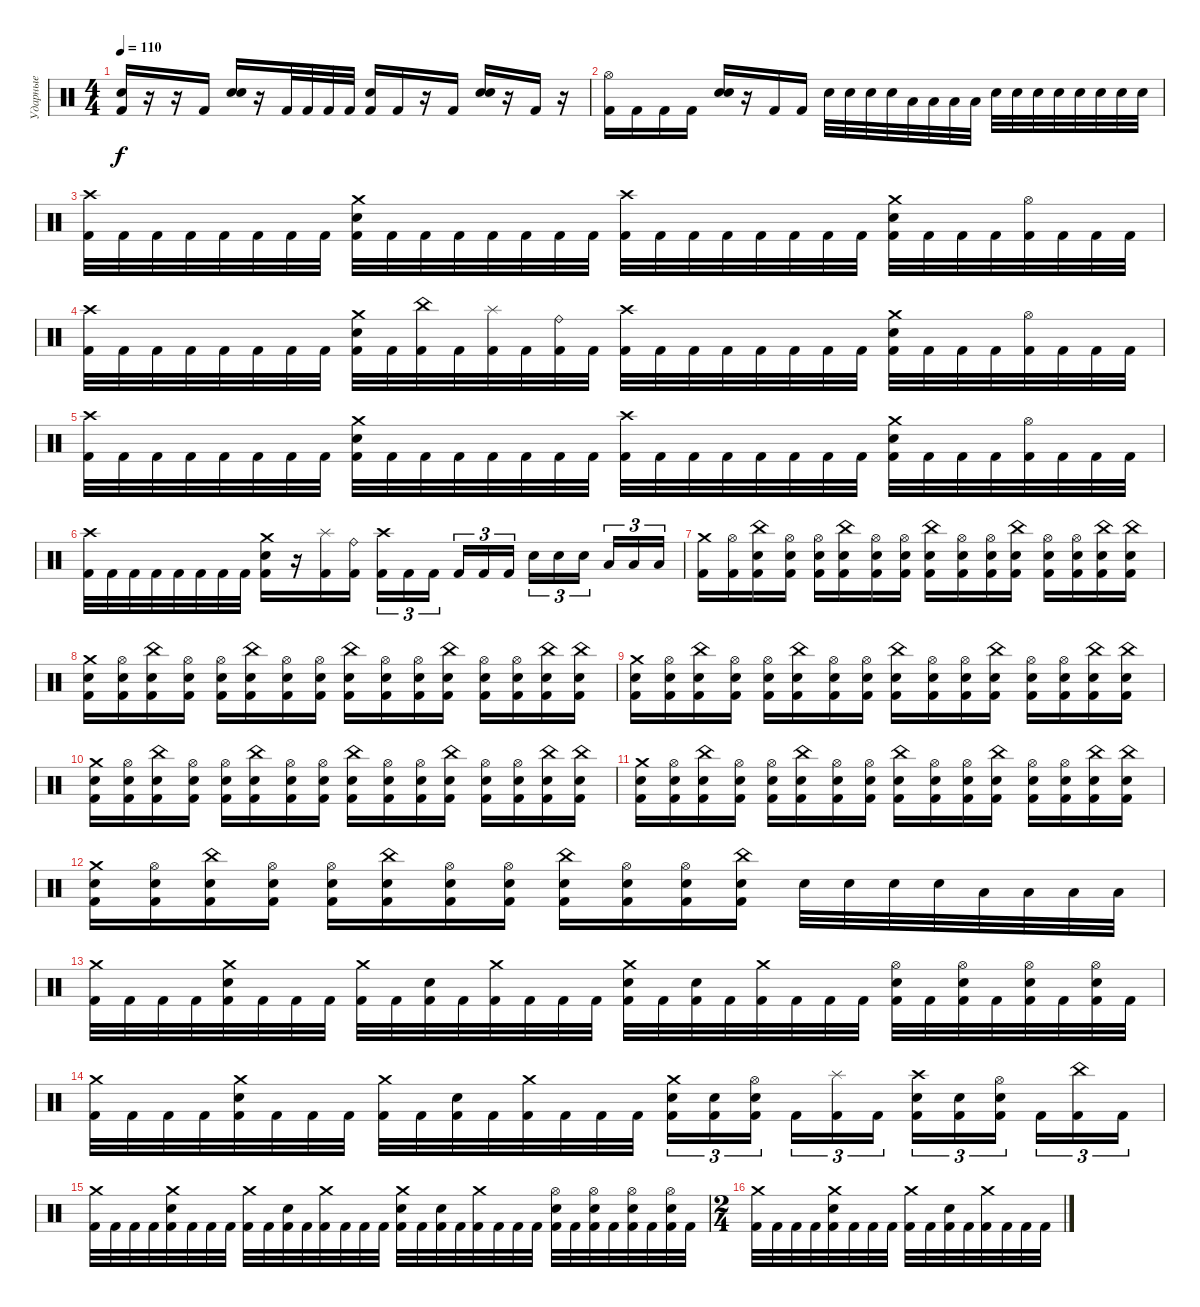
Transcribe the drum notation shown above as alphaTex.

\track ("Ударные" "Ударные") {instrument percussion}
\staff {score}
\articulation defaults
\ts (4 4)
\tempo 110
\clef neutral
\ks c
("Metronome (bell)" "Kick (hit) 2").16{dy f} r.16 r.16 "Kick (hit) 2".16 ("Metronome (bell)" "Electric Snare (hit)").16 r.16 "Kick (hit) 2".32 "Kick (hit) 2".32 "Kick (hit) 2".32 "Kick (hit) 2".32 ("Metronome (bell)" "Kick (hit) 2").16 "Kick (hit) 2".16 r.16 "Kick (hit) 2".16 ("Metronome (bell)" "Electric Snare (hit)").16 r.16 "Kick (hit) 2".16 r.16 |
("Hi-Hat (open)" "Kick (hit) 2").16 "Kick (hit) 2".16 "Kick (hit) 2".16 "Kick (hit) 2".16 ("Metronome (bell)" "Electric Snare (hit)").16 r.16 "Kick (hit) 2".16 "Kick (hit) 2".16 "Electric Snare (hit)".32 "Electric Snare (hit)".32 "Electric Snare (hit)".32 "Electric Snare (hit)".32 "Low Tom (hit)".32 "Low Tom (hit)".32 "Low Tom (hit)".32 "Low Tom (hit)".32 "Electric Snare (hit)".32 "Electric Snare (hit)".32 "Electric Snare (hit)".32 "Electric Snare (hit)".32 "Electric Snare (hit)".32 "Electric Snare (hit)".32 "Electric Snare (hit)".32 "Electric Snare (hit)".32 |
("Crash high (hit)" "Kick (hit) 2").32 "Kick (hit) 2".32 "Kick (hit) 2".32 "Kick (hit) 2".32 "Kick (hit) 2".32 "Kick (hit) 2".32 "Kick (hit) 2".32 "Kick (hit) 2".32 ("Crash medium (hit)" "Electric Snare (hit)" "Kick (hit) 2").32 "Kick (hit) 2".32 "Kick (hit) 2".32 "Kick (hit) 2".32 "Kick (hit) 2".32 "Kick (hit) 2".32 "Kick (hit) 2".32 "Kick (hit) 2".32 ("Crash high (hit)" "Kick (hit) 2").32 "Kick (hit) 2".32 "Kick (hit) 2".32 "Kick (hit) 2".32 "Kick (hit) 2".32 "Kick (hit) 2".32 "Kick (hit) 2".32 "Kick (hit) 2".32 ("Crash medium (hit)" "Electric Snare (hit)" "Kick (hit) 2").32 "Kick (hit) 2".32 "Kick (hit) 2".32 "Kick (hit) 2".32 ("Hi-Hat (open)" "Kick (hit) 2").32 "Kick (hit) 2".32 "Kick (hit) 2".32 "Kick (hit) 2".32 |
("Crash high (hit)" "Kick (hit) 2").32 "Kick (hit) 2".32 "Kick (hit) 2".32 "Kick (hit) 2".32 "Kick (hit) 2".32 "Kick (hit) 2".32 "Kick (hit) 2".32 "Kick (hit) 2".32 ("Crash medium (hit)" "Electric Snare (hit)" "Kick (hit) 2").32 "Kick (hit) 2".32 ("China (hit)" "Kick (hit) 2").32 "Kick (hit) 2".32 ("Splash (hit)" "Kick (hit) 2").32 "Kick (hit) 2".32 ("Ride (bell)" "Kick (hit) 2").32 "Kick (hit) 2".32 ("Crash high (hit)" "Kick (hit) 2").32 "Kick (hit) 2".32 "Kick (hit) 2".32 "Kick (hit) 2".32 "Kick (hit) 2".32 "Kick (hit) 2".32 "Kick (hit) 2".32 "Kick (hit) 2".32 ("Crash medium (hit)" "Electric Snare (hit)" "Kick (hit) 2").32 "Kick (hit) 2".32 "Kick (hit) 2".32 "Kick (hit) 2".32 ("Hi-Hat (open)" "Kick (hit) 2").32 "Kick (hit) 2".32 "Kick (hit) 2".32 "Kick (hit) 2".32 |
("Crash high (hit)" "Kick (hit) 2").32 "Kick (hit) 2".32 "Kick (hit) 2".32 "Kick (hit) 2".32 "Kick (hit) 2".32 "Kick (hit) 2".32 "Kick (hit) 2".32 "Kick (hit) 2".32 ("Crash medium (hit)" "Electric Snare (hit)" "Kick (hit) 2").32 "Kick (hit) 2".32 "Kick (hit) 2".32 "Kick (hit) 2".32 "Kick (hit) 2".32 "Kick (hit) 2".32 "Kick (hit) 2".32 "Kick (hit) 2".32 ("Crash high (hit)" "Kick (hit) 2").32 "Kick (hit) 2".32 "Kick (hit) 2".32 "Kick (hit) 2".32 "Kick (hit) 2".32 "Kick (hit) 2".32 "Kick (hit) 2".32 "Kick (hit) 2".32 ("Crash medium (hit)" "Electric Snare (hit)" "Kick (hit) 2").32 "Kick (hit) 2".32 "Kick (hit) 2".32 "Kick (hit) 2".32 ("Hi-Hat (open)" "Kick (hit) 2").32 "Kick (hit) 2".32 "Kick (hit) 2".32 "Kick (hit) 2".32 |
("Crash high (hit)" "Kick (hit) 2").32 "Kick (hit) 2".32 "Kick (hit) 2".32 "Kick (hit) 2".32 "Kick (hit) 2".32 "Kick (hit) 2".32 "Kick (hit) 2".32 "Kick (hit) 2".32 ("Crash medium (hit)" "Electric Snare (hit)" "Kick (hit) 2").16 r.16 ("Splash (hit)" "Kick (hit) 2").16 ("Ride (bell)" "Kick (hit) 2").16 ("Crash high (hit)" "Kick (hit) 2").16{tu (3 2)} "Kick (hit) 2".16{tu (3 2)} "Kick (hit) 2".16{tu (3 2) beam splitsecondary} "Kick (hit) 2".16{tu (3 2)} "Kick (hit) 2".16{tu (3 2)} "Kick (hit) 2".16{tu (3 2)} "Electric Snare (hit)".16{tu (3 2)} "Electric Snare (hit)".16{tu (3 2)} "Electric Snare (hit)".16{tu (3 2) beam splitsecondary} "Low Tom (hit)".16{tu (3 2)} "Low Tom (hit)".16{tu (3 2)} "Low Tom (hit)".16{tu (3 2)} |
("Crash medium (hit)" "Kick (hit) 2").16 ("Hi-Hat (open)" "Kick (hit) 2").16 ("China (hit)" "Electric Snare (hit)" "Kick (hit) 2").16 ("Hi-Hat (open)" "Electric Snare (hit)" "Kick (hit) 2").16 ("Hi-Hat (open)" "Electric Snare (hit)" "Kick (hit) 2").16 ("China (hit)" "Electric Snare (hit)" "Kick (hit) 2").16 ("Hi-Hat (open)" "Electric Snare (hit)" "Kick (hit) 2").16 ("Hi-Hat (open)" "Electric Snare (hit)" "Kick (hit) 2").16 ("China (hit)" "Electric Snare (hit)" "Kick (hit) 2").16 ("Hi-Hat (open)" "Electric Snare (hit)" "Kick (hit) 2").16 ("Hi-Hat (open)" "Electric Snare (hit)" "Kick (hit) 2").16 ("China (hit)" "Electric Snare (hit)" "Kick (hit) 2").16 ("Hi-Hat (open)" "Electric Snare (hit)" "Kick (hit) 2").16 ("Hi-Hat (open)" "Electric Snare (hit)" "Kick (hit) 2").16 ("China (hit)" "Electric Snare (hit)" "Kick (hit) 2").16 ("China (hit)" "Electric Snare (hit)" "Kick (hit) 2").16 |
("Crash medium (hit)" "Electric Snare (hit)" "Kick (hit) 2").16 ("Hi-Hat (open)" "Electric Snare (hit)" "Kick (hit) 2").16 ("China (hit)" "Electric Snare (hit)" "Kick (hit) 2").16 ("Hi-Hat (open)" "Electric Snare (hit)" "Kick (hit) 2").16 ("Hi-Hat (open)" "Electric Snare (hit)" "Kick (hit) 2").16 ("China (hit)" "Electric Snare (hit)" "Kick (hit) 2").16 ("Hi-Hat (open)" "Electric Snare (hit)" "Kick (hit) 2").16 ("Hi-Hat (open)" "Electric Snare (hit)" "Kick (hit) 2").16 ("China (hit)" "Electric Snare (hit)" "Kick (hit) 2").16 ("Hi-Hat (open)" "Electric Snare (hit)" "Kick (hit) 2").16 ("Hi-Hat (open)" "Electric Snare (hit)" "Kick (hit) 2").16 ("China (hit)" "Electric Snare (hit)" "Kick (hit) 2").16 ("Hi-Hat (open)" "Electric Snare (hit)" "Kick (hit) 2").16 ("Hi-Hat (open)" "Electric Snare (hit)" "Kick (hit) 2").16 ("China (hit)" "Electric Snare (hit)" "Kick (hit) 2").16 ("China (hit)" "Electric Snare (hit)" "Kick (hit) 2").16 |
("Crash medium (hit)" "Electric Snare (hit)" "Kick (hit) 2").16 ("Hi-Hat (open)" "Electric Snare (hit)" "Kick (hit) 2").16 ("China (hit)" "Electric Snare (hit)" "Kick (hit) 2").16 ("Hi-Hat (open)" "Electric Snare (hit)" "Kick (hit) 2").16 ("Hi-Hat (open)" "Electric Snare (hit)" "Kick (hit) 2").16 ("China (hit)" "Electric Snare (hit)" "Kick (hit) 2").16 ("Hi-Hat (open)" "Electric Snare (hit)" "Kick (hit) 2").16 ("Hi-Hat (open)" "Electric Snare (hit)" "Kick (hit) 2").16 ("China (hit)" "Electric Snare (hit)" "Kick (hit) 2").16 ("Hi-Hat (open)" "Electric Snare (hit)" "Kick (hit) 2").16 ("Hi-Hat (open)" "Electric Snare (hit)" "Kick (hit) 2").16 ("China (hit)" "Electric Snare (hit)" "Kick (hit) 2").16 ("Hi-Hat (open)" "Electric Snare (hit)" "Kick (hit) 2").16 ("Hi-Hat (open)" "Electric Snare (hit)" "Kick (hit) 2").16 ("China (hit)" "Electric Snare (hit)" "Kick (hit) 2").16 ("China (hit)" "Electric Snare (hit)" "Kick (hit) 2").16 |
("Crash medium (hit)" "Electric Snare (hit)" "Kick (hit) 2").16 ("Hi-Hat (open)" "Electric Snare (hit)" "Kick (hit) 2").16 ("China (hit)" "Electric Snare (hit)" "Kick (hit) 2").16 ("Hi-Hat (open)" "Electric Snare (hit)" "Kick (hit) 2").16 ("Hi-Hat (open)" "Electric Snare (hit)" "Kick (hit) 2").16 ("China (hit)" "Electric Snare (hit)" "Kick (hit) 2").16 ("Hi-Hat (open)" "Electric Snare (hit)" "Kick (hit) 2").16 ("Hi-Hat (open)" "Electric Snare (hit)" "Kick (hit) 2").16 ("China (hit)" "Electric Snare (hit)" "Kick (hit) 2").16 ("Hi-Hat (open)" "Electric Snare (hit)" "Kick (hit) 2").16 ("Hi-Hat (open)" "Electric Snare (hit)" "Kick (hit) 2").16 ("China (hit)" "Electric Snare (hit)" "Kick (hit) 2").16 ("Hi-Hat (open)" "Electric Snare (hit)" "Kick (hit) 2").16 ("Hi-Hat (open)" "Electric Snare (hit)" "Kick (hit) 2").16 ("China (hit)" "Electric Snare (hit)" "Kick (hit) 2").16 ("China (hit)" "Electric Snare (hit)" "Kick (hit) 2").16 |
("Crash medium (hit)" "Electric Snare (hit)" "Kick (hit) 2").16 ("Hi-Hat (open)" "Electric Snare (hit)" "Kick (hit) 2").16 ("China (hit)" "Electric Snare (hit)" "Kick (hit) 2").16 ("Hi-Hat (open)" "Electric Snare (hit)" "Kick (hit) 2").16 ("Hi-Hat (open)" "Electric Snare (hit)" "Kick (hit) 2").16 ("China (hit)" "Electric Snare (hit)" "Kick (hit) 2").16 ("Hi-Hat (open)" "Electric Snare (hit)" "Kick (hit) 2").16 ("Hi-Hat (open)" "Electric Snare (hit)" "Kick (hit) 2").16 ("China (hit)" "Electric Snare (hit)" "Kick (hit) 2").16 ("Hi-Hat (open)" "Electric Snare (hit)" "Kick (hit) 2").16 ("Hi-Hat (open)" "Electric Snare (hit)" "Kick (hit) 2").16 ("China (hit)" "Electric Snare (hit)" "Kick (hit) 2").16 ("Hi-Hat (open)" "Electric Snare (hit)" "Kick (hit) 2").16 ("Hi-Hat (open)" "Electric Snare (hit)" "Kick (hit) 2").16 ("China (hit)" "Electric Snare (hit)" "Kick (hit) 2").16 ("China (hit)" "Electric Snare (hit)" "Kick (hit) 2").16 |
("Crash medium (hit)" "Electric Snare (hit)" "Kick (hit) 2").16 ("Hi-Hat (open)" "Electric Snare (hit)" "Kick (hit) 2").16 ("China (hit)" "Electric Snare (hit)" "Kick (hit) 2").16 ("Hi-Hat (open)" "Electric Snare (hit)" "Kick (hit) 2").16 ("Hi-Hat (open)" "Electric Snare (hit)" "Kick (hit) 2").16 ("China (hit)" "Electric Snare (hit)" "Kick (hit) 2").16 ("Hi-Hat (open)" "Electric Snare (hit)" "Kick (hit) 2").16 ("Hi-Hat (open)" "Electric Snare (hit)" "Kick (hit) 2").16 ("China (hit)" "Electric Snare (hit)" "Kick (hit) 2").16 ("Hi-Hat (open)" "Electric Snare (hit)" "Kick (hit) 2").16 ("Hi-Hat (open)" "Electric Snare (hit)" "Kick (hit) 2").16 ("China (hit)" "Electric Snare (hit)" "Kick (hit) 2").16 "Electric Snare (hit)".32 "Electric Snare (hit)".32 "Electric Snare (hit)".32 "Electric Snare (hit)".32 "Low Tom (hit)".32 "Low Tom (hit)".32 "Low Tom (hit)".32 "Low Tom (hit)".32 |
("Crash medium (hit)" "Kick (hit) 2").32 "Kick (hit) 2".32 "Kick (hit) 2".32 "Kick (hit) 2".32 ("Crash medium (hit)" "Electric Snare (hit)" "Kick (hit) 2").32 "Kick (hit) 2".32 "Kick (hit) 2".32 "Kick (hit) 2".32 ("Crash medium (hit)" "Kick (hit) 2").32 "Kick (hit) 2".32 ("Electric Snare (hit)" "Kick (hit) 2").32 "Kick (hit) 2".32 ("Crash medium (hit)" "Kick (hit) 2").32 "Kick (hit) 2".32 "Kick (hit) 2".32 "Kick (hit) 2".32 ("Crash medium (hit)" "Electric Snare (hit)" "Kick (hit) 2").32 "Kick (hit) 2".32 ("Electric Snare (hit)" "Kick (hit) 2").32 "Kick (hit) 2".32 ("Crash medium (hit)" "Kick (hit) 2").32 "Kick (hit) 2".32 "Kick (hit) 2".32 "Kick (hit) 2".32 ("Hi-Hat (open)" "Electric Snare (hit)" "Kick (hit) 2").32 "Kick (hit) 2".32 ("Hi-Hat (open)" "Electric Snare (hit)" "Kick (hit) 2").32 "Kick (hit) 2".32 ("Hi-Hat (open)" "Electric Snare (hit)" "Kick (hit) 2").32 "Kick (hit) 2".32 ("Hi-Hat (open)" "Electric Snare (hit)" "Kick (hit) 2").32 "Kick (hit) 2".32 |
("Crash medium (hit)" "Kick (hit) 2").32 "Kick (hit) 2".32 "Kick (hit) 2".32 "Kick (hit) 2".32 ("Crash medium (hit)" "Electric Snare (hit)" "Kick (hit) 2").32 "Kick (hit) 2".32 "Kick (hit) 2".32 "Kick (hit) 2".32 ("Crash medium (hit)" "Kick (hit) 2").32 "Kick (hit) 2".32 ("Electric Snare (hit)" "Kick (hit) 2").32 "Kick (hit) 2".32 ("Crash medium (hit)" "Kick (hit) 2").32 "Kick (hit) 2".32 "Kick (hit) 2".32 "Kick (hit) 2".32 ("Crash medium (hit)" "Electric Snare (hit)" "Kick (hit) 2").16{tu (3 2)} ("Electric Snare (hit)" "Kick (hit) 2").16{tu (3 2)} ("Hi-Hat (open)" "Electric Snare (hit)" "Kick (hit) 2").16{tu (3 2) beam splitsecondary} "Kick (hit) 2".16{tu (3 2)} ("Splash (hit)" "Kick (hit) 2").16{tu (3 2)} "Kick (hit) 2".16{tu (3 2)} ("Crash high (hit)" "Electric Snare (hit)" "Kick (hit) 2").16{tu (3 2)} ("Electric Snare (hit)" "Kick (hit) 2").16{tu (3 2)} ("Hi-Hat (open)" "Electric Snare (hit)" "Kick (hit) 2").16{tu (3 2) beam splitsecondary} "Kick (hit) 2".16{tu (3 2)} ("China (hit)" "Kick (hit) 2").16{tu (3 2)} "Kick (hit) 2".16{tu (3 2)} |
("Crash medium (hit)" "Kick (hit) 2").32 "Kick (hit) 2".32 "Kick (hit) 2".32 "Kick (hit) 2".32 ("Crash medium (hit)" "Electric Snare (hit)" "Kick (hit) 2").32 "Kick (hit) 2".32 "Kick (hit) 2".32 "Kick (hit) 2".32 ("Crash medium (hit)" "Kick (hit) 2").32 "Kick (hit) 2".32 ("Electric Snare (hit)" "Kick (hit) 2").32 "Kick (hit) 2".32 ("Crash medium (hit)" "Kick (hit) 2").32 "Kick (hit) 2".32 "Kick (hit) 2".32 "Kick (hit) 2".32 ("Crash medium (hit)" "Electric Snare (hit)" "Kick (hit) 2").32 "Kick (hit) 2".32 ("Electric Snare (hit)" "Kick (hit) 2").32 "Kick (hit) 2".32 ("Crash medium (hit)" "Kick (hit) 2").32 "Kick (hit) 2".32 "Kick (hit) 2".32 "Kick (hit) 2".32 ("Hi-Hat (open)" "Electric Snare (hit)" "Kick (hit) 2").32 "Kick (hit) 2".32 ("Hi-Hat (open)" "Electric Snare (hit)" "Kick (hit) 2").32 "Kick (hit) 2".32 ("Hi-Hat (open)" "Electric Snare (hit)" "Kick (hit) 2").32 "Kick (hit) 2".32 ("Hi-Hat (open)" "Electric Snare (hit)" "Kick (hit) 2").32 "Kick (hit) 2".32 |
\ts (2 4)
("Crash medium (hit)" "Kick (hit) 2").32 "Kick (hit) 2".32 "Kick (hit) 2".32 "Kick (hit) 2".32 ("Crash medium (hit)" "Electric Snare (hit)" "Kick (hit) 2").32 "Kick (hit) 2".32 "Kick (hit) 2".32 "Kick (hit) 2".32 ("Crash medium (hit)" "Kick (hit) 2").32 "Kick (hit) 2".32 ("Electric Snare (hit)" "Kick (hit) 2").32 "Kick (hit) 2".32 ("Crash medium (hit)" "Kick (hit) 2").32 "Kick (hit) 2".32 "Kick (hit) 2".32 "Kick (hit) 2".32
